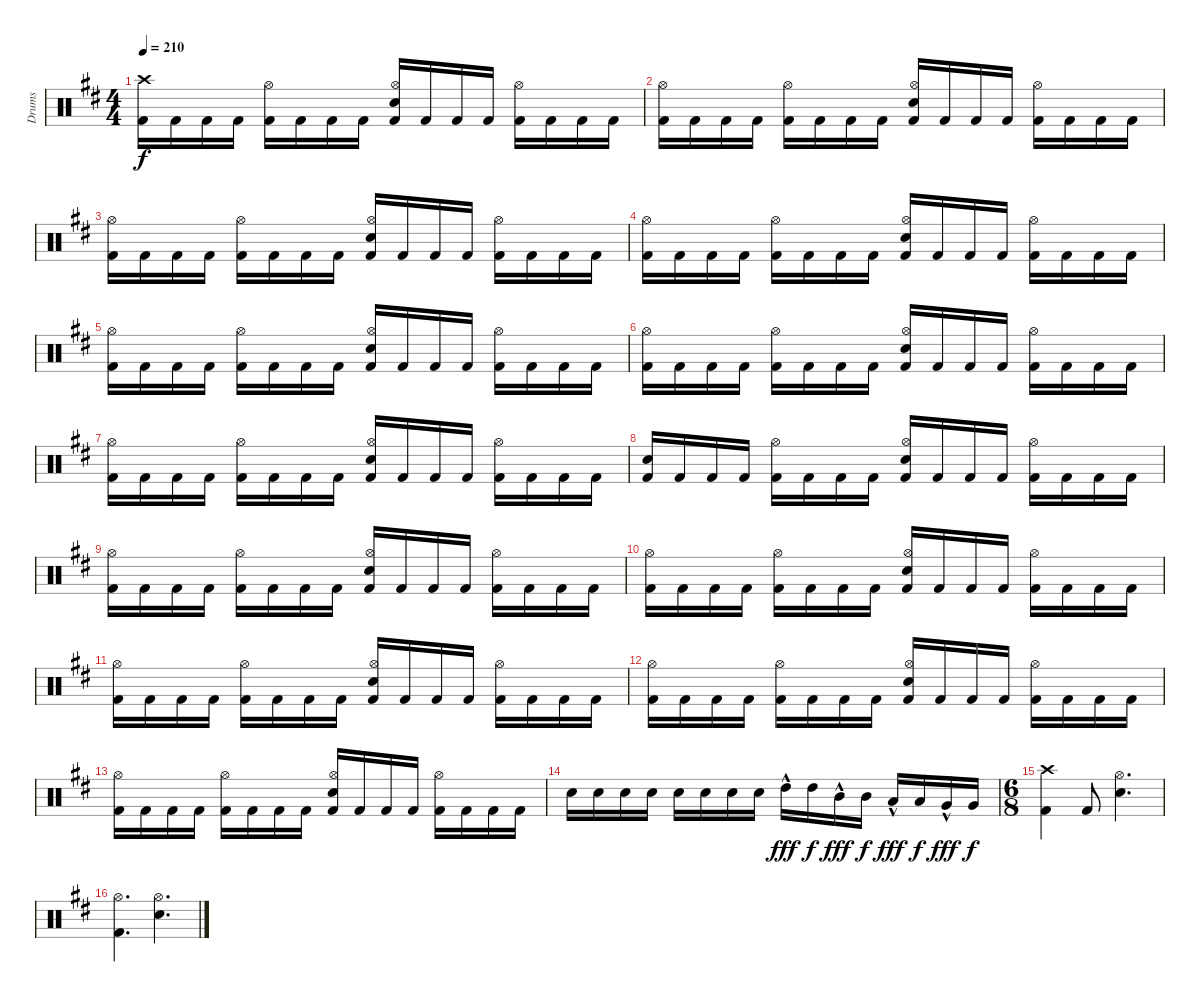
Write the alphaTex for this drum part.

\track ("Drums" "Drums") {instrument percussion}
\staff {score}
\articulation defaults
\ts (4 4)
\tempo 210
\clef neutral
\ks bminor
("Kick (hit) 2" "Crash high (hit)").16{dy f} "Kick (hit) 2".16 "Kick (hit) 2".16 "Kick (hit) 2".16 ("Kick (hit) 2" "Hi-Hat (open)").16 "Kick (hit) 2".16 "Kick (hit) 2".16 "Kick (hit) 2".16 ("Kick (hit) 2" "Electric Snare (hit)" "Hi-Hat (open)").16 "Kick (hit) 2".16 "Kick (hit) 2".16 "Kick (hit) 2".16 ("Kick (hit) 2" "Hi-Hat (open)").16 "Kick (hit) 2".16 "Kick (hit) 2".16 "Kick (hit) 2".16 |
("Kick (hit) 2" "Hi-Hat (open)").16 "Kick (hit) 2".16 "Kick (hit) 2".16 "Kick (hit) 2".16 ("Kick (hit) 2" "Hi-Hat (open)").16 "Kick (hit) 2".16 "Kick (hit) 2".16 "Kick (hit) 2".16 ("Kick (hit) 2" "Electric Snare (hit)" "Hi-Hat (open)").16 "Kick (hit) 2".16 "Kick (hit) 2".16 "Kick (hit) 2".16 ("Kick (hit) 2" "Hi-Hat (open)").16 "Kick (hit) 2".16 "Kick (hit) 2".16 "Kick (hit) 2".16 |
("Kick (hit) 2" "Hi-Hat (open)").16 "Kick (hit) 2".16 "Kick (hit) 2".16 "Kick (hit) 2".16 ("Kick (hit) 2" "Hi-Hat (open)").16 "Kick (hit) 2".16 "Kick (hit) 2".16 "Kick (hit) 2".16 ("Kick (hit) 2" "Electric Snare (hit)" "Hi-Hat (open)").16 "Kick (hit) 2".16 "Kick (hit) 2".16 "Kick (hit) 2".16 ("Kick (hit) 2" "Hi-Hat (open)").16 "Kick (hit) 2".16 "Kick (hit) 2".16 "Kick (hit) 2".16 |
("Kick (hit) 2" "Hi-Hat (open)").16 "Kick (hit) 2".16 "Kick (hit) 2".16 "Kick (hit) 2".16 ("Kick (hit) 2" "Hi-Hat (open)").16 "Kick (hit) 2".16 "Kick (hit) 2".16 "Kick (hit) 2".16 ("Kick (hit) 2" "Electric Snare (hit)" "Hi-Hat (open)").16 "Kick (hit) 2".16 "Kick (hit) 2".16 "Kick (hit) 2".16 ("Kick (hit) 2" "Hi-Hat (open)").16 "Kick (hit) 2".16 "Kick (hit) 2".16 "Kick (hit) 2".16 |
("Kick (hit) 2" "Hi-Hat (open)").16 "Kick (hit) 2".16 "Kick (hit) 2".16 "Kick (hit) 2".16 ("Kick (hit) 2" "Hi-Hat (open)").16 "Kick (hit) 2".16 "Kick (hit) 2".16 "Kick (hit) 2".16 ("Kick (hit) 2" "Electric Snare (hit)" "Hi-Hat (open)").16 "Kick (hit) 2".16 "Kick (hit) 2".16 "Kick (hit) 2".16 ("Kick (hit) 2" "Hi-Hat (open)").16 "Kick (hit) 2".16 "Kick (hit) 2".16 "Kick (hit) 2".16 |
("Kick (hit) 2" "Hi-Hat (open)").16 "Kick (hit) 2".16 "Kick (hit) 2".16 "Kick (hit) 2".16 ("Kick (hit) 2" "Hi-Hat (open)").16 "Kick (hit) 2".16 "Kick (hit) 2".16 "Kick (hit) 2".16 ("Kick (hit) 2" "Electric Snare (hit)" "Hi-Hat (open)").16 "Kick (hit) 2".16 "Kick (hit) 2".16 "Kick (hit) 2".16 ("Kick (hit) 2" "Hi-Hat (open)").16 "Kick (hit) 2".16 "Kick (hit) 2".16 "Kick (hit) 2".16 |
("Kick (hit) 2" "Hi-Hat (open)").16 "Kick (hit) 2".16 "Kick (hit) 2".16 "Kick (hit) 2".16 ("Kick (hit) 2" "Hi-Hat (open)").16 "Kick (hit) 2".16 "Kick (hit) 2".16 "Kick (hit) 2".16 ("Kick (hit) 2" "Electric Snare (hit)" "Hi-Hat (open)").16 "Kick (hit) 2".16 "Kick (hit) 2".16 "Kick (hit) 2".16 ("Kick (hit) 2" "Hi-Hat (open)").16 "Kick (hit) 2".16 "Kick (hit) 2".16 "Kick (hit) 2".16 |
("Kick (hit) 2" "Electric Snare (hit)").16 "Kick (hit) 2".16 "Kick (hit) 2".16 "Kick (hit) 2".16 ("Kick (hit) 2" "Hi-Hat (open)").16 "Kick (hit) 2".16 "Kick (hit) 2".16 "Kick (hit) 2".16 ("Kick (hit) 2" "Electric Snare (hit)" "Hi-Hat (open)").16 "Kick (hit) 2".16 "Kick (hit) 2".16 "Kick (hit) 2".16 ("Kick (hit) 2" "Hi-Hat (open)").16 "Kick (hit) 2".16 "Kick (hit) 2".16 "Kick (hit) 2".16 |
("Kick (hit) 2" "Hi-Hat (open)").16 "Kick (hit) 2".16 "Kick (hit) 2".16 "Kick (hit) 2".16 ("Kick (hit) 2" "Hi-Hat (open)").16 "Kick (hit) 2".16 "Kick (hit) 2".16 "Kick (hit) 2".16 ("Kick (hit) 2" "Electric Snare (hit)" "Hi-Hat (open)").16 "Kick (hit) 2".16 "Kick (hit) 2".16 "Kick (hit) 2".16 ("Kick (hit) 2" "Hi-Hat (open)").16 "Kick (hit) 2".16 "Kick (hit) 2".16 "Kick (hit) 2".16 |
("Kick (hit) 2" "Hi-Hat (open)").16 "Kick (hit) 2".16 "Kick (hit) 2".16 "Kick (hit) 2".16 ("Kick (hit) 2" "Hi-Hat (open)").16 "Kick (hit) 2".16 "Kick (hit) 2".16 "Kick (hit) 2".16 ("Kick (hit) 2" "Electric Snare (hit)" "Hi-Hat (open)").16 "Kick (hit) 2".16 "Kick (hit) 2".16 "Kick (hit) 2".16 ("Kick (hit) 2" "Hi-Hat (open)").16 "Kick (hit) 2".16 "Kick (hit) 2".16 "Kick (hit) 2".16 |
("Kick (hit) 2" "Hi-Hat (open)").16 "Kick (hit) 2".16 "Kick (hit) 2".16 "Kick (hit) 2".16 ("Kick (hit) 2" "Hi-Hat (open)").16 "Kick (hit) 2".16 "Kick (hit) 2".16 "Kick (hit) 2".16 ("Kick (hit) 2" "Electric Snare (hit)" "Hi-Hat (open)").16 "Kick (hit) 2".16 "Kick (hit) 2".16 "Kick (hit) 2".16 ("Kick (hit) 2" "Hi-Hat (open)").16 "Kick (hit) 2".16 "Kick (hit) 2".16 "Kick (hit) 2".16 |
("Kick (hit) 2" "Hi-Hat (open)").16 "Kick (hit) 2".16 "Kick (hit) 2".16 "Kick (hit) 2".16 ("Kick (hit) 2" "Hi-Hat (open)").16 "Kick (hit) 2".16 "Kick (hit) 2".16 "Kick (hit) 2".16 ("Kick (hit) 2" "Electric Snare (hit)" "Hi-Hat (open)").16 "Kick (hit) 2".16 "Kick (hit) 2".16 "Kick (hit) 2".16 ("Kick (hit) 2" "Hi-Hat (open)").16 "Kick (hit) 2".16 "Kick (hit) 2".16 "Kick (hit) 2".16 |
("Kick (hit) 2" "Hi-Hat (open)").16 "Kick (hit) 2".16 "Kick (hit) 2".16 "Kick (hit) 2".16 ("Kick (hit) 2" "Hi-Hat (open)").16 "Kick (hit) 2".16 "Kick (hit) 2".16 "Kick (hit) 2".16 ("Kick (hit) 2" "Electric Snare (hit)" "Hi-Hat (open)").16 "Kick (hit) 2".16 "Kick (hit) 2".16 "Kick (hit) 2".16 ("Kick (hit) 2" "Hi-Hat (open)").16 "Kick (hit) 2".16 "Kick (hit) 2".16 "Kick (hit) 2".16 |
"Electric Snare (hit)".16 "Electric Snare (hit)".16 "Electric Snare (hit)".16 "Electric Snare (hit)".16 "Electric Snare (hit)".16 "Electric Snare (hit)".16 "Electric Snare (hit)".16 "Electric Snare (hit)".16 "High Tom (hit)"{hac}.16{dy fff} "High Tom (hit)".16{dy f} "Mid Tom (hit)"{hac}.16{dy fff} "Mid Tom (hit)".16{dy f} "Low Tom (hit)"{hac}.16{dy fff} "Low Tom (hit)".16{dy f} "Very Low Tom (hit)"{hac}.16{dy fff} "Very Low Tom (hit)".16{dy f} |
\ts (6 8)
("Kick (hit) 2" "Crash high (hit)").4 "Kick (hit) 2".8 ("Electric Snare (hit)" "Hi-Hat (open)").4{d} |
("Kick (hit) 2" "Hi-Hat (open)").4{d} ("Electric Snare (hit)" "Hi-Hat (open)").4{d}
